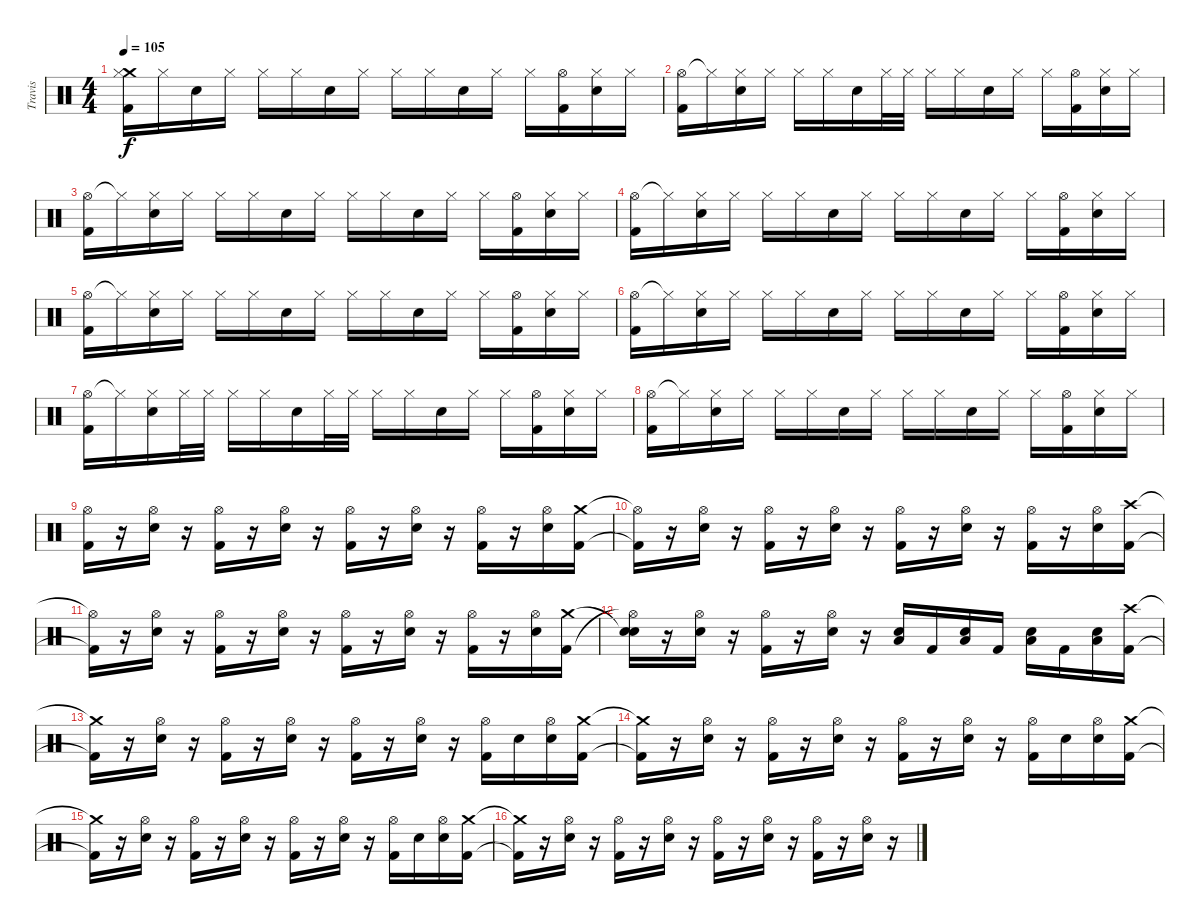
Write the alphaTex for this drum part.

\track ("Travis" "Travis") {instrument percussion}
\staff {score}
\articulation defaults
\ts (4 4)
\tempo 105
\clef neutral
\ks c
("Crash medium (hit)" "Hi-Hat (closed)" "Kick (hit) 2").16{dy f} "Hi-Hat (closed)".16 "Electric Snare (hit)".16 "Hi-Hat (closed)".16 "Hi-Hat (closed)".16 "Hi-Hat (closed)".16 "Electric Snare (hit)".16 "Hi-Hat (closed)".16 "Hi-Hat (closed)".16 "Hi-Hat (closed)".16 "Electric Snare (hit)".16 "Hi-Hat (closed)".16 "Hi-Hat (closed)".16 ("Hi-Hat (open)" "Kick (hit) 2").16 ("Hi-Hat (closed)" "Electric Snare (hit)").16 "Hi-Hat (closed)".16 |
("Hi-Hat (open)" "Kick (hit) 2").16 "Hi-Hat (closed)"{t}.16 ("Hi-Hat (closed)" "Electric Snare (hit)").16 "Hi-Hat (closed)".16 "Hi-Hat (closed)".16 "Hi-Hat (closed)".16 "Electric Snare (hit)".16 "Hi-Hat (closed)".32 "Hi-Hat (closed)".32 "Hi-Hat (closed)".16 "Hi-Hat (closed)".16 "Electric Snare (hit)".16 "Hi-Hat (closed)".16 "Hi-Hat (closed)".16 ("Hi-Hat (open)" "Kick (hit) 2").16 ("Hi-Hat (closed)" "Electric Snare (hit)").16 "Hi-Hat (closed)".16 |
("Hi-Hat (open)" "Kick (hit) 2").16 "Hi-Hat (closed)"{t}.16 ("Hi-Hat (closed)" "Electric Snare (hit)").16 "Hi-Hat (closed)".16 "Hi-Hat (closed)".16 "Hi-Hat (closed)".16 "Electric Snare (hit)".16 "Hi-Hat (closed)".16 "Hi-Hat (closed)".16 "Hi-Hat (closed)".16 "Electric Snare (hit)".16 "Hi-Hat (closed)".16 "Hi-Hat (closed)".16 ("Hi-Hat (open)" "Kick (hit) 2").16 ("Hi-Hat (closed)" "Electric Snare (hit)").16 "Hi-Hat (closed)".16 |
("Hi-Hat (open)" "Kick (hit) 2").16 "Hi-Hat (closed)"{t}.16 ("Hi-Hat (closed)" "Electric Snare (hit)").16 "Hi-Hat (closed)".16 "Hi-Hat (closed)".16 "Hi-Hat (closed)".16 "Electric Snare (hit)".16 "Hi-Hat (closed)".16 "Hi-Hat (closed)".16 "Hi-Hat (closed)".16 "Electric Snare (hit)".16 "Hi-Hat (closed)".16 "Hi-Hat (closed)".16 ("Hi-Hat (open)" "Kick (hit) 2").16 ("Hi-Hat (closed)" "Electric Snare (hit)").16 "Hi-Hat (closed)".16 |
("Hi-Hat (open)" "Kick (hit) 2").16 "Hi-Hat (closed)"{t}.16 ("Hi-Hat (closed)" "Electric Snare (hit)").16 "Hi-Hat (closed)".16 "Hi-Hat (closed)".16 "Hi-Hat (closed)".16 "Electric Snare (hit)".16 "Hi-Hat (closed)".16 "Hi-Hat (closed)".16 "Hi-Hat (closed)".16 "Electric Snare (hit)".16 "Hi-Hat (closed)".16 "Hi-Hat (closed)".16 ("Hi-Hat (open)" "Kick (hit) 2").16 ("Hi-Hat (closed)" "Electric Snare (hit)").16 "Hi-Hat (closed)".16 |
("Hi-Hat (open)" "Kick (hit) 2").16 "Hi-Hat (closed)"{t}.16 ("Hi-Hat (closed)" "Electric Snare (hit)").16 "Hi-Hat (closed)".16 "Hi-Hat (closed)".16 "Hi-Hat (closed)".16 "Electric Snare (hit)".16 "Hi-Hat (closed)".16 "Hi-Hat (closed)".16 "Hi-Hat (closed)".16 "Electric Snare (hit)".16 "Hi-Hat (closed)".16 "Hi-Hat (closed)".16 ("Hi-Hat (open)" "Kick (hit) 2").16 ("Hi-Hat (closed)" "Electric Snare (hit)").16 "Hi-Hat (closed)".16 |
("Hi-Hat (open)" "Kick (hit) 2").16 "Hi-Hat (closed)"{t}.16 ("Hi-Hat (closed)" "Electric Snare (hit)").16 "Hi-Hat (closed)".32 "Hi-Hat (closed)".32 "Hi-Hat (closed)".16 "Hi-Hat (closed)".16 "Electric Snare (hit)".16 "Hi-Hat (closed)".32 "Hi-Hat (closed)".32 "Hi-Hat (closed)".16 "Hi-Hat (closed)".16 "Electric Snare (hit)".16 "Hi-Hat (closed)".16 "Hi-Hat (closed)".16 ("Hi-Hat (open)" "Kick (hit) 2").16 ("Hi-Hat (closed)" "Electric Snare (hit)").16 "Hi-Hat (closed)".16 |
("Hi-Hat (open)" "Kick (hit) 2").16 "Hi-Hat (closed)"{t}.16 ("Hi-Hat (closed)" "Electric Snare (hit)").16 "Hi-Hat (closed)".16 "Hi-Hat (closed)".16 "Hi-Hat (closed)".16 "Electric Snare (hit)".16 "Hi-Hat (closed)".16 "Hi-Hat (closed)".16 "Hi-Hat (closed)".16 "Electric Snare (hit)".16 "Hi-Hat (closed)".16 "Hi-Hat (closed)".16 ("Hi-Hat (open)" "Kick (hit) 2").16 ("Hi-Hat (closed)" "Electric Snare (hit)").16 "Hi-Hat (closed)".16 |
("Hi-Hat (open)" "Kick (hit) 2").16 r.16 ("Hi-Hat (open)" "Electric Snare (hit)").16 r.16 ("Hi-Hat (open)" "Kick (hit) 2").16 r.16 ("Hi-Hat (open)" "Electric Snare (hit)").16 r.16 ("Hi-Hat (open)" "Kick (hit) 2").16 r.16 ("Hi-Hat (open)" "Electric Snare (hit)").16 r.16 ("Hi-Hat (open)" "Kick (hit) 2").16 r.16 ("Hi-Hat (open)" "Electric Snare (hit)").16 ("Crash medium (hit)" "Kick (hit) 2").16 |
("Hi-Hat (open)"{t} "Kick (hit) 2"{t}).16 r.16 ("Hi-Hat (open)" "Electric Snare (hit)").16 r.16 ("Hi-Hat (open)" "Kick (hit) 2").16 r.16 ("Hi-Hat (open)" "Electric Snare (hit)").16 r.16 ("Hi-Hat (open)" "Kick (hit) 2").16 r.16 ("Hi-Hat (open)" "Electric Snare (hit)").16 r.16 ("Hi-Hat (open)" "Kick (hit) 2").16 r.16 ("Hi-Hat (open)" "Electric Snare (hit)").16 ("Crash high (hit)" "Kick (hit) 2").16 |
("Hi-Hat (open)"{t} "Kick (hit) 2"{t}).16 r.16 ("Hi-Hat (open)" "Electric Snare (hit)").16 r.16 ("Hi-Hat (open)" "Kick (hit) 2").16 r.16 ("Hi-Hat (open)" "Electric Snare (hit)").16 r.16 ("Hi-Hat (open)" "Kick (hit) 2").16 r.16 ("Hi-Hat (open)" "Electric Snare (hit)").16 r.16 ("Hi-Hat (open)" "Kick (hit) 2").16 r.16 ("Hi-Hat (open)" "Electric Snare (hit)").16 ("Crash medium (hit)" "Kick (hit) 2").16 |
("Snare (hit)"{t} "Hi-Hat (open)"{t} "Snare (hit)").16 r.16 ("Hi-Hat (open)" "Electric Snare (hit)").16 r.16 ("Hi-Hat (open)" "Kick (hit) 2").16 r.16 ("Hi-Hat (open)" "Electric Snare (hit)").16 r.16 ("Low Tom (hit)" "Electric Snare (hit)").16 "Kick (hit) 2".16 ("Low Tom (hit)" "Electric Snare (hit)").16 "Kick (hit) 2".16 ("Low Tom (hit)" "Electric Snare (hit)").16 "Kick (hit) 2".16 ("Low Tom (hit)" "Electric Snare (hit)").16 ("Crash high (hit)" "Kick (hit) 2").16 |
("Crash medium (hit)"{t} "Kick (hit) 2"{t}).16 r.16 ("Hi-Hat (open)" "Electric Snare (hit)").16 r.16 ("Hi-Hat (open)" "Kick (hit) 2").16 r.16 ("Hi-Hat (open)" "Electric Snare (hit)").16 r.16 ("Hi-Hat (open)" "Kick (hit) 2").16 r.16 ("Hi-Hat (open)" "Electric Snare (hit)").16 r.16 ("Hi-Hat (open)" "Kick (hit) 2").16 "Electric Snare (hit)".16 ("Hi-Hat (open)" "Electric Snare (hit)").16 ("Crash medium (hit)" "Kick (hit) 2").16 |
("Crash medium (hit)"{t} "Kick (hit) 2"{t}).16 r.16 ("Hi-Hat (open)" "Electric Snare (hit)").16 r.16 ("Hi-Hat (open)" "Kick (hit) 2").16 r.16 ("Hi-Hat (open)" "Electric Snare (hit)").16 r.16 ("Hi-Hat (open)" "Kick (hit) 2").16 r.16 ("Hi-Hat (open)" "Electric Snare (hit)").16 r.16 ("Hi-Hat (open)" "Kick (hit) 2").16 "Electric Snare (hit)".16 ("Hi-Hat (open)" "Electric Snare (hit)").16 ("Crash medium (hit)" "Kick (hit) 2").16 |
("Crash medium (hit)"{t} "Kick (hit) 2"{t}).16 r.16 ("Hi-Hat (open)" "Electric Snare (hit)").16 r.16 ("Hi-Hat (open)" "Kick (hit) 2").16 r.16 ("Hi-Hat (open)" "Electric Snare (hit)").16 r.16 ("Hi-Hat (open)" "Kick (hit) 2").16 r.16 ("Hi-Hat (open)" "Electric Snare (hit)").16 r.16 ("Hi-Hat (open)" "Kick (hit) 2").16 "Electric Snare (hit)".16 ("Hi-Hat (open)" "Electric Snare (hit)").16 ("Crash medium (hit)" "Kick (hit) 2").16 |
("Crash medium (hit)"{t} "Kick (hit) 2"{t}).16 r.16 ("Hi-Hat (open)" "Electric Snare (hit)").16 r.16 ("Hi-Hat (open)" "Kick (hit) 2").16 r.16 ("Hi-Hat (open)" "Electric Snare (hit)").16 r.16 ("Hi-Hat (open)" "Kick (hit) 2").16 r.16 ("Hi-Hat (open)" "Electric Snare (hit)").16 r.16 ("Hi-Hat (open)" "Kick (hit) 2").16 r.16 ("Hi-Hat (open)" "Electric Snare (hit)").16 r.16
